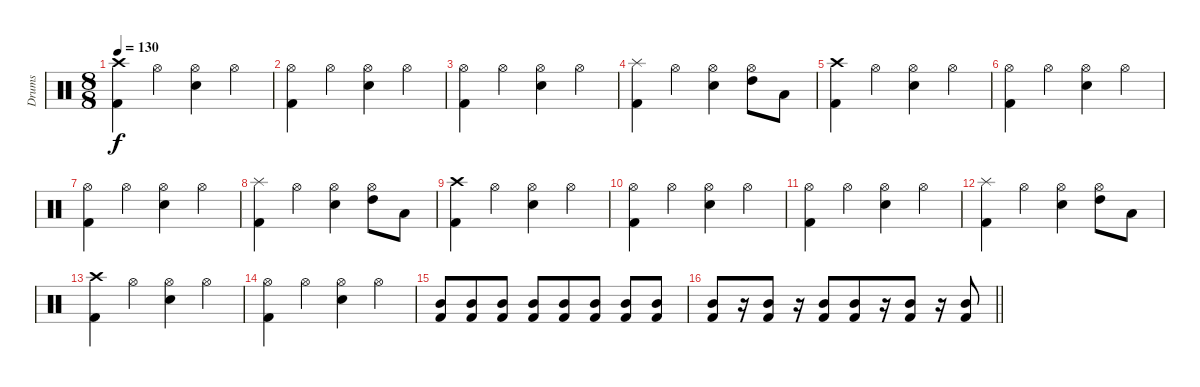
\track ("Drums" "Drums") {instrument percussion}
\staff {score}
\articulation defaults
\ts (8 8)
\tempo 130
\clef neutral
\ks c
("Kick (hit) 2" "Crash high (hit)").4{dy f} "Hi-Hat (open)".4 ("Electric Snare (hit)" "Hi-Hat (open)").4 "Hi-Hat (open)".4 |
("Kick (hit) 2" "Hi-Hat (open)").4 "Hi-Hat (open)".4 ("Electric Snare (hit)" "Hi-Hat (open)").4 "Hi-Hat (open)".4 |
("Kick (hit) 2" "Hi-Hat (open)").4 "Hi-Hat (open)".4 ("Electric Snare (hit)" "Hi-Hat (open)").4 "Hi-Hat (open)".4 |
("Kick (hit) 2" "Splash (hit)").4 "Hi-Hat (open)".4 ("Electric Snare (hit)" "Hi-Hat (open)").4 ("Hi-Hat (open)" "High Tom (hit)").8 "Low Tom (hit)".8 |
("Kick (hit) 2" "Crash high (hit)").4 "Hi-Hat (open)".4 ("Electric Snare (hit)" "Hi-Hat (open)").4 "Hi-Hat (open)".4 |
("Kick (hit) 2" "Hi-Hat (open)").4 "Hi-Hat (open)".4 ("Electric Snare (hit)" "Hi-Hat (open)").4 "Hi-Hat (open)".4 |
("Kick (hit) 2" "Hi-Hat (open)").4 "Hi-Hat (open)".4 ("Electric Snare (hit)" "Hi-Hat (open)").4 "Hi-Hat (open)".4 |
("Kick (hit) 2" "Splash (hit)").4 "Hi-Hat (open)".4 ("Electric Snare (hit)" "Hi-Hat (open)").4 ("Hi-Hat (open)" "High Tom (hit)").8 "Low Tom (hit)".8 |
("Kick (hit) 2" "Crash high (hit)").4 "Hi-Hat (open)".4 ("Electric Snare (hit)" "Hi-Hat (open)").4 "Hi-Hat (open)".4 |
("Kick (hit) 2" "Hi-Hat (open)").4 "Hi-Hat (open)".4 ("Electric Snare (hit)" "Hi-Hat (open)").4 "Hi-Hat (open)".4 |
("Kick (hit) 2" "Hi-Hat (open)").4 "Hi-Hat (open)".4 ("Electric Snare (hit)" "Hi-Hat (open)").4 "Hi-Hat (open)".4 |
("Kick (hit) 2" "Splash (hit)").4 "Hi-Hat (open)".4 ("Electric Snare (hit)" "Hi-Hat (open)").4 ("Hi-Hat (open)" "High Tom (hit)").8 "Low Tom (hit)".8 |
("Kick (hit) 2" "Crash high (hit)").4 "Hi-Hat (open)".4 ("Electric Snare (hit)" "Hi-Hat (open)").4 "Hi-Hat (open)".4 |
("Kick (hit) 2" "Hi-Hat (open)").4 "Hi-Hat (open)".4 ("Electric Snare (hit)" "Hi-Hat (open)").4 "Hi-Hat (open)".4 |
("Kick (hit) 2" "Mid Tom (hit)").8 ("Kick (hit) 2" "Mid Tom (hit)").8 ("Kick (hit) 2" "Mid Tom (hit)").8 ("Kick (hit) 2" "Mid Tom (hit)").8 ("Kick (hit) 2" "Mid Tom (hit)").8 ("Kick (hit) 2" "Mid Tom (hit)").8 ("Kick (hit) 2" "Mid Tom (hit)").8 ("Kick (hit) 2" "Mid Tom (hit)").8 |
\barLineRight lightlight
("Kick (hit) 2" "Mid Tom (hit)").8 r.16 ("Kick (hit) 2" "Mid Tom (hit)").8 r.16 ("Kick (hit) 2" "Mid Tom (hit)").8 ("Kick (hit) 2" "Mid Tom (hit)").8 r.16 ("Kick (hit) 2" "Mid Tom (hit)").8 r.16 ("Kick (hit) 2" "Mid Tom (hit)").8
